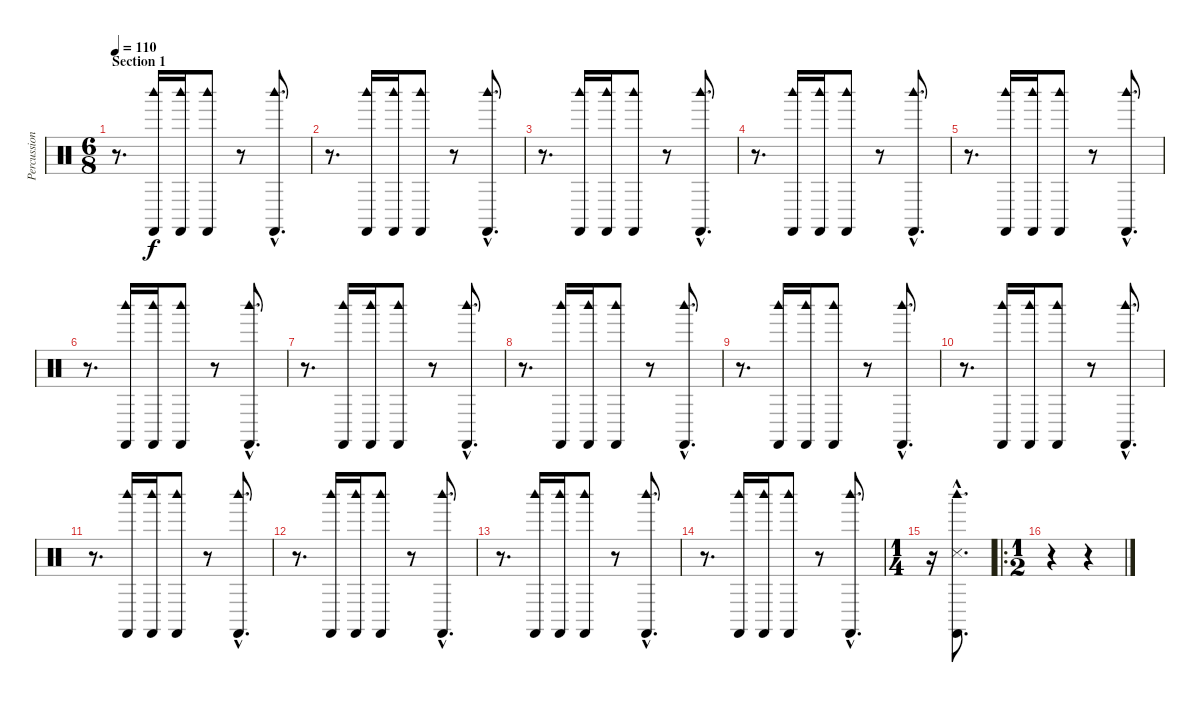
\track ("Percussion" "Percussion") {instrument percussion}
\staff {score}
\articulation defaults
\ts (6 8)
\section ("" "Section 1")
\tempo 110
\clef neutral
\ks c
r.8{d dy f} ("Woodblock high (hit)" "Castanets (hit)").16 ("Woodblock high (hit)" "Castanets (hit)").16 ("Woodblock high (hit)" "Castanets (hit)").8 r.8 ("Woodblock high (hit)"{hac} "Castanets (hit)"{hac}).8{d} |
r.8{d} ("Woodblock high (hit)" "Castanets (hit)").16 ("Woodblock high (hit)" "Castanets (hit)").16 ("Woodblock high (hit)" "Castanets (hit)").8 r.8 ("Woodblock high (hit)"{hac} "Castanets (hit)"{hac}).8{d} |
r.8{d} ("Woodblock high (hit)" "Castanets (hit)").16 ("Woodblock high (hit)" "Castanets (hit)").16 ("Woodblock high (hit)" "Castanets (hit)").8 r.8 ("Woodblock high (hit)"{hac} "Castanets (hit)"{hac}).8{d} |
r.8{d} ("Woodblock high (hit)" "Castanets (hit)").16 ("Woodblock high (hit)" "Castanets (hit)").16 ("Woodblock high (hit)" "Castanets (hit)").8 r.8 ("Woodblock high (hit)"{hac} "Castanets (hit)"{hac}).8{d} |
r.8{d} ("Woodblock high (hit)" "Castanets (hit)").16 ("Woodblock high (hit)" "Castanets (hit)").16 ("Woodblock high (hit)" "Castanets (hit)").8 r.8 ("Woodblock high (hit)"{hac} "Castanets (hit)"{hac}).8{d} |
r.8{d} ("Woodblock high (hit)" "Castanets (hit)").16 ("Woodblock high (hit)" "Castanets (hit)").16 ("Woodblock high (hit)" "Castanets (hit)").8 r.8 ("Woodblock high (hit)"{hac} "Castanets (hit)"{hac}).8{d} |
r.8{d} ("Woodblock high (hit)" "Castanets (hit)").16 ("Woodblock high (hit)" "Castanets (hit)").16 ("Woodblock high (hit)" "Castanets (hit)").8 r.8 ("Woodblock high (hit)"{hac} "Castanets (hit)"{hac}).8{d} |
r.8{d} ("Woodblock high (hit)" "Castanets (hit)").16 ("Woodblock high (hit)" "Castanets (hit)").16 ("Woodblock high (hit)" "Castanets (hit)").8 r.8 ("Woodblock high (hit)"{hac} "Castanets (hit)"{hac}).8{d} |
r.8{d} ("Woodblock high (hit)" "Castanets (hit)").16 ("Woodblock high (hit)" "Castanets (hit)").16 ("Woodblock high (hit)" "Castanets (hit)").8 r.8 ("Woodblock high (hit)"{hac} "Castanets (hit)"{hac}).8{d} |
r.8{d} ("Woodblock high (hit)" "Castanets (hit)").16 ("Woodblock high (hit)" "Castanets (hit)").16 ("Woodblock high (hit)" "Castanets (hit)").8 r.8 ("Woodblock high (hit)"{hac} "Castanets (hit)"{hac}).8{d} |
r.8{d} ("Woodblock high (hit)" "Castanets (hit)").16 ("Woodblock high (hit)" "Castanets (hit)").16 ("Woodblock high (hit)" "Castanets (hit)").8 r.8 ("Woodblock high (hit)"{hac} "Castanets (hit)"{hac}).8{d} |
r.8{d} ("Woodblock high (hit)" "Castanets (hit)").16 ("Woodblock high (hit)" "Castanets (hit)").16 ("Woodblock high (hit)" "Castanets (hit)").8 r.8 ("Woodblock high (hit)"{hac} "Castanets (hit)"{hac}).8{d} |
r.8{d} ("Woodblock high (hit)" "Castanets (hit)").16 ("Woodblock high (hit)" "Castanets (hit)").16 ("Woodblock high (hit)" "Castanets (hit)").8 r.8 ("Woodblock high (hit)"{hac} "Castanets (hit)"{hac}).8{d} |
r.8{d} ("Woodblock high (hit)" "Castanets (hit)").16 ("Woodblock high (hit)" "Castanets (hit)").16 ("Woodblock high (hit)" "Castanets (hit)").8 r.8 ("Woodblock high (hit)"{hac} "Castanets (hit)"{hac}).8{d} |
\ts (1 4)
r.16 ("Castanets (hit)"{hac} "Woodblock high (hit)"{hac} "Snare (side stick) 3"{hac}).8{d} |
\ro
\ts (1 2)
r.4 r.4
